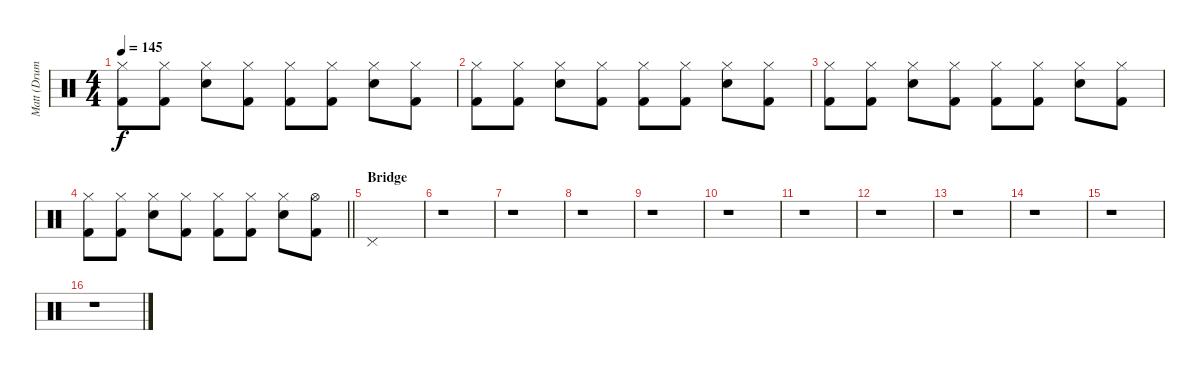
\track ("Matt (Drums)" "Matt (Drum") {instrument percussion}
\staff {score}
\articulation defaults
\ts (4 4)
\tempo 145
\clef neutral
\ks c
("Hi-Hat (closed)" "Kick (hit) 2").8{dy f} ("Hi-Hat (closed)" "Kick (hit) 2").8 ("Hi-Hat (closed)" "Electric Snare (hit)").8 ("Hi-Hat (closed)" "Kick (hit) 2").8 ("Hi-Hat (closed)" "Kick (hit) 2").8 ("Hi-Hat (closed)" "Kick (hit) 2").8 ("Hi-Hat (closed)" "Electric Snare (hit)").8 ("Hi-Hat (closed)" "Kick (hit) 2").8 |
("Hi-Hat (closed)" "Kick (hit) 2").8 ("Hi-Hat (closed)" "Kick (hit) 2").8 ("Hi-Hat (closed)" "Electric Snare (hit)").8 ("Hi-Hat (closed)" "Kick (hit) 2").8 ("Hi-Hat (closed)" "Kick (hit) 2").8 ("Hi-Hat (closed)" "Kick (hit) 2").8 ("Hi-Hat (closed)" "Electric Snare (hit)").8 ("Hi-Hat (closed)" "Kick (hit) 2").8 |
("Hi-Hat (closed)" "Kick (hit) 2").8 ("Hi-Hat (closed)" "Kick (hit) 2").8 ("Hi-Hat (closed)" "Electric Snare (hit)").8 ("Hi-Hat (closed)" "Kick (hit) 2").8 ("Hi-Hat (closed)" "Kick (hit) 2").8 ("Hi-Hat (closed)" "Kick (hit) 2").8 ("Hi-Hat (closed)" "Electric Snare (hit)").8 ("Hi-Hat (closed)" "Kick (hit) 2").8 |
\barLineRight lightlight
("Hi-Hat (closed)" "Kick (hit) 2").8 ("Hi-Hat (closed)" "Kick (hit) 2").8 ("Hi-Hat (closed)" "Electric Snare (hit)").8 ("Hi-Hat (closed)" "Kick (hit) 2").8 ("Hi-Hat (closed)" "Kick (hit) 2").8 ("Hi-Hat (closed)" "Kick (hit) 2").8 ("Hi-Hat (closed)" "Electric Snare (hit)").8 ("Hi-Hat (open)" "Kick (hit) 2").8 |
\section ("" "Bridge")
"Pedal Hi-Hat (hit)".1 |
r.1 |
r.1 |
r.1 |
r.1 |
r.1 |
r.1 |
r.1 |
r.1 |
r.1 |
r.1 |
r.1
